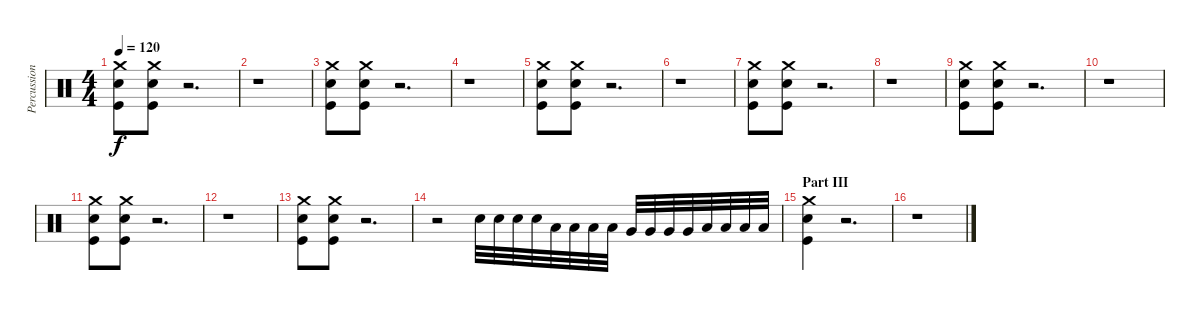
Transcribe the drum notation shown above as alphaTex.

\track ("Percussions" "Percussion") {instrument percussion}
\staff {score}
\articulation defaults
\ts (4 4)
\tempo 120
\clef neutral
\ks c
("Crash medium (hit)" "Electric Snare (hit)" "Kick (hit)").8{dy f} ("Crash medium (hit)" "Electric Snare (hit)" "Kick (hit)").8 r.2{d} |
r.1 |
("Crash medium (hit)" "Electric Snare (hit)" "Kick (hit)").8 ("Crash medium (hit)" "Electric Snare (hit)" "Kick (hit)").8 r.2{d} |
r.1 |
("Crash medium (hit)" "Electric Snare (hit)" "Kick (hit)").8 ("Crash medium (hit)" "Electric Snare (hit)" "Kick (hit)").8 r.2{d} |
r.1 |
("Crash medium (hit)" "Electric Snare (hit)" "Kick (hit)").8 ("Crash medium (hit)" "Electric Snare (hit)" "Kick (hit)").8 r.2{d} |
r.1 |
("Crash medium (hit)" "Electric Snare (hit)" "Kick (hit)").8 ("Crash medium (hit)" "Electric Snare (hit)" "Kick (hit)").8 r.2{d} |
r.1 |
("Crash medium (hit)" "Electric Snare (hit)" "Kick (hit)").8 ("Crash medium (hit)" "Electric Snare (hit)" "Kick (hit)").8 r.2{d} |
r.1 |
("Crash medium (hit)" "Electric Snare (hit)" "Kick (hit)").8 ("Crash medium (hit)" "Electric Snare (hit)" "Kick (hit)").8 r.2{d} |
r.2 "Electric Snare (hit)".32 "Electric Snare (hit)".32 "Electric Snare (hit)".32 "Electric Snare (hit)".32 "Low Tom (hit)".32 "Low Tom (hit)".32 "Low Tom (hit)".32 "Low Tom (hit)".32 "Very Low Tom (hit)".32 "Very Low Tom (hit)".32 "Very Low Tom (hit)".32 "Very Low Tom (hit)".32 "Low Tom (hit)".32 "Low Tom (hit)".32 "Low Tom (hit)".32 "Low Tom (hit)".32 |
\section ("" "Part III")
("Crash medium (hit)" "Electric Snare (hit)" "Kick (hit)").4 r.2{d} |
r.1
